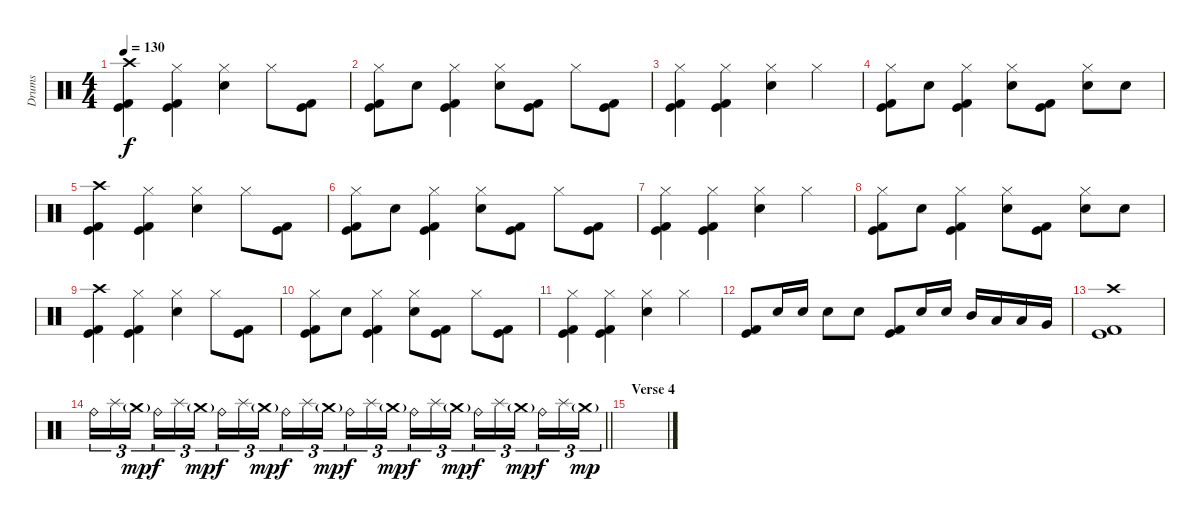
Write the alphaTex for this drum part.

\track ("Drums" "Drums") {instrument percussion}
\staff {score}
\articulation defaults
\ts (4 4)
\tempo 130
\clef neutral
\ks c
("Crash high (hit)" "Kick (hit)" "Kick (hit) 2").4{dy f} ("Hi-Hat (closed)" "Kick (hit)" "Kick (hit) 2").4 ("Hi-Hat (closed)" "Electric Snare (hit)").4 "Hi-Hat (closed)".8 ("Kick (hit)" "Kick (hit) 2").8 |
("Hi-Hat (closed)" "Kick (hit)" "Kick (hit) 2").8 "Electric Snare (hit)".8 ("Hi-Hat (closed)" "Kick (hit)" "Kick (hit) 2").4 ("Hi-Hat (closed)" "Electric Snare (hit)").8 ("Kick (hit)" "Kick (hit) 2").8 "Hi-Hat (closed)".8 ("Kick (hit)" "Kick (hit) 2").8 |
("Hi-Hat (closed)" "Kick (hit)" "Kick (hit) 2").4 ("Hi-Hat (closed)" "Kick (hit)" "Kick (hit) 2").4 ("Hi-Hat (closed)" "Electric Snare (hit)").4 "Hi-Hat (closed)".4 |
("Hi-Hat (closed)" "Kick (hit)" "Kick (hit) 2").8 "Electric Snare (hit)".8 ("Hi-Hat (closed)" "Kick (hit)" "Kick (hit) 2").4 ("Hi-Hat (closed)" "Electric Snare (hit)").8 ("Kick (hit)" "Kick (hit) 2").8 ("Hi-Hat (closed)" "Electric Snare (hit)").8 "Electric Snare (hit)".8 |
("Crash high (hit)" "Kick (hit)" "Kick (hit) 2").4 ("Hi-Hat (closed)" "Kick (hit)" "Kick (hit) 2").4 ("Hi-Hat (closed)" "Electric Snare (hit)").4 "Hi-Hat (closed)".8 ("Kick (hit)" "Kick (hit) 2").8 |
("Hi-Hat (closed)" "Kick (hit)" "Kick (hit) 2").8 "Electric Snare (hit)".8 ("Hi-Hat (closed)" "Kick (hit)" "Kick (hit) 2").4 ("Hi-Hat (closed)" "Electric Snare (hit)").8 ("Kick (hit)" "Kick (hit) 2").8 "Hi-Hat (closed)".8 ("Kick (hit)" "Kick (hit) 2").8 |
("Hi-Hat (closed)" "Kick (hit)" "Kick (hit) 2").4 ("Hi-Hat (closed)" "Kick (hit)" "Kick (hit) 2").4 ("Hi-Hat (closed)" "Electric Snare (hit)").4 "Hi-Hat (closed)".4 |
("Hi-Hat (closed)" "Kick (hit)" "Kick (hit) 2").8 "Electric Snare (hit)".8 ("Hi-Hat (closed)" "Kick (hit)" "Kick (hit) 2").4 ("Hi-Hat (closed)" "Electric Snare (hit)").8 ("Kick (hit)" "Kick (hit) 2").8 ("Hi-Hat (closed)" "Electric Snare (hit)").8 "Electric Snare (hit)".8 |
("Crash high (hit)" "Kick (hit)" "Kick (hit) 2").4 ("Hi-Hat (closed)" "Kick (hit)" "Kick (hit) 2").4 ("Hi-Hat (closed)" "Electric Snare (hit)").4 "Hi-Hat (closed)".8 ("Kick (hit)" "Kick (hit) 2").8 |
("Hi-Hat (closed)" "Kick (hit)" "Kick (hit) 2").8 "Electric Snare (hit)".8 ("Hi-Hat (closed)" "Kick (hit)" "Kick (hit) 2").4 ("Hi-Hat (closed)" "Electric Snare (hit)").8 ("Kick (hit)" "Kick (hit) 2").8 "Hi-Hat (closed)".8 ("Kick (hit)" "Kick (hit) 2").8 |
("Hi-Hat (closed)" "Kick (hit)" "Kick (hit) 2").4 ("Hi-Hat (closed)" "Kick (hit)" "Kick (hit) 2").4 ("Hi-Hat (closed)" "Electric Snare (hit)").4 "Hi-Hat (closed)".4 |
("Kick (hit)" "Kick (hit) 2").8 "Electric Snare (hit)".16 "Electric Snare (hit)".16 "Electric Snare (hit)".8 "Electric Snare (hit)".8 ("Kick (hit)" "Kick (hit) 2").8 "Electric Snare (hit)".16 "Electric Snare (hit)".16 "Mid Tom (hit)".16 "Low Tom (hit)".16 "Low Tom (hit)".16 "Very Low Tom (hit)".16 |
("Crash high (hit)" "Kick (hit)" "Kick (hit) 2").1 |
\barLineRight lightlight "Ride (bell)".16{tu (3 2)} "Splash (hit)".16{tu (3 2)} "Crash medium (hit)"{g}.16{tu (3 2) dy mp beam splitsecondary} "Ride (bell)".16{tu (3 2) dy f} "Splash (hit)".16{tu (3 2)} "Crash medium (hit)"{g}.16{tu (3 2) dy mp} "Ride (bell)".16{tu (3 2) dy f} "Splash (hit)".16{tu (3 2)} "Crash medium (hit)"{g}.16{tu (3 2) dy mp beam splitsecondary} "Ride (bell)".16{tu (3 2) dy f} "Splash (hit)".16{tu (3 2)} "Crash medium (hit)"{g}.16{tu (3 2) dy mp} "Ride (bell)".16{tu (3 2) dy f} "Splash (hit)".16{tu (3 2)} "Crash medium (hit)"{g}.16{tu (3 2) dy mp beam splitsecondary} "Ride (bell)".16{tu (3 2) dy f} "Splash (hit)".16{tu (3 2)} "Crash medium (hit)"{g}.16{tu (3 2) dy mp} "Ride (bell)".16{tu (3 2) dy f} "Splash (hit)".16{tu (3 2)} "Crash medium (hit)"{g}.16{tu (3 2) dy mp beam splitsecondary} "Ride (bell)".16{tu (3 2) dy f} "Splash (hit)".16{tu (3 2)} "Crash medium (hit)"{g}.16{tu (3 2) dy mp}
|
\section ("" "Verse 4")
